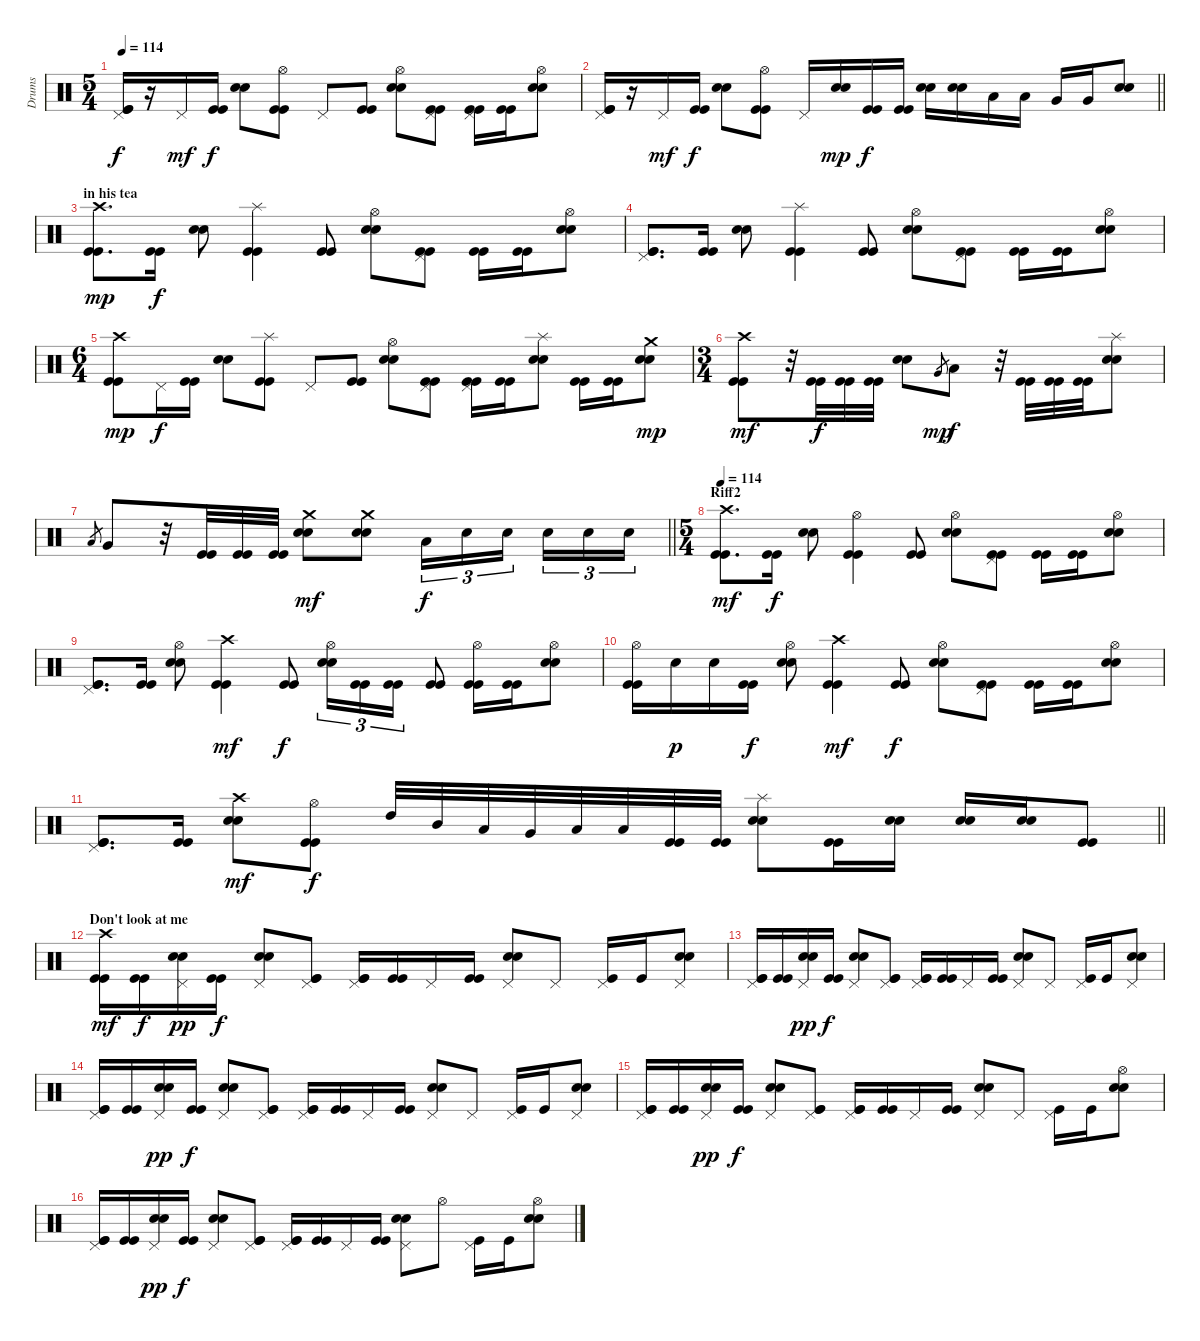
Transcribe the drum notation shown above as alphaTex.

\track ("Drums" "Drums") {instrument percussion}
\staff {score}
\articulation defaults
\ts (5 4)
\tempo 114
\clef neutral
\ks c
("Kick (hit)" "Kick (hit)" "Pedal Hi-Hat (hit)").16{dy f} r.16 "Pedal Hi-Hat (hit)".16{dy mf} ("Kick (hit)" "Kick (hit)").16{dy f} ("Snare (hit) 2" "Electric Snare (hit)").8 ("Kick (hit)" "Kick (hit)" "Hi-Hat (open)").8 "Pedal Hi-Hat (hit)".8 ("Kick (hit)" "Kick (hit)").8 ("Snare (hit) 2" "Electric Snare (hit)" "Hi-Hat (open)").8 ("Kick (hit)" "Kick (hit)" "Pedal Hi-Hat (hit)").8 ("Kick (hit)" "Kick (hit)" "Pedal Hi-Hat (hit)").16 ("Kick (hit)" "Kick (hit)").16 ("Snare (hit) 2" "Electric Snare (hit)" "Hi-Hat (open)").8 |
\barLineRight lightlight
("Kick (hit)" "Kick (hit)" "Pedal Hi-Hat (hit)").16 r.16 "Pedal Hi-Hat (hit)".16{dy mf} ("Kick (hit)" "Kick (hit)").16{dy f} ("Snare (hit) 2" "Electric Snare (hit)").8 ("Kick (hit)" "Kick (hit)" "Hi-Hat (open)").8 "Pedal Hi-Hat (hit)".16 ("Snare (hit) 2" "Electric Snare (hit)").16{dy mp} ("Kick (hit)" "Kick (hit)").16{dy f} ("Kick (hit)" "Kick (hit)").16 ("Snare (hit) 2" "Electric Snare (hit)").16 ("Snare (hit) 2" "Electric Snare (hit)").16 "Low Tom (hit)".16 "Low Tom (hit)".16 "Very Low Tom (hit)".16 "Very Low Tom (hit)".16 ("Snare (hit) 2" "Electric Snare (hit)").8 |
\section ("" "in his tea")
("Kick (hit)" "Kick (hit)" "Crash high (hit)").8{d dy mp volume 16} ("Kick (hit)" "Kick (hit)").16{dy f} ("Snare (hit) 2" "Electric Snare (hit)").8 ("Kick (hit)" "Kick (hit)" "Splash (hit)").4 ("Kick (hit)" "Kick (hit)").8 ("Snare (hit) 2" "Electric Snare (hit)" "Hi-Hat (open)").8 ("Kick (hit)" "Kick (hit)" "Pedal Hi-Hat (hit)").8 ("Kick (hit)" "Kick (hit)").16 ("Kick (hit)" "Kick (hit)").16 ("Snare (hit) 2" "Electric Snare (hit)" "Hi-Hat (open)").8 |
("Kick (hit)" "Kick (hit)" "Pedal Hi-Hat (hit)").8{d volume 16} ("Kick (hit)" "Kick (hit)").16 ("Snare (hit) 2" "Electric Snare (hit)").8 ("Kick (hit)" "Kick (hit)" "Splash (hit)").4 ("Kick (hit)" "Kick (hit)").8 ("Snare (hit) 2" "Electric Snare (hit)" "Hi-Hat (open)").8 ("Kick (hit)" "Kick (hit)" "Pedal Hi-Hat (hit)").8 ("Kick (hit)" "Kick (hit)").16 ("Kick (hit)" "Kick (hit)").16 ("Snare (hit) 2" "Electric Snare (hit)" "Hi-Hat (open)").8 |
\ts (6 4)
("Kick (hit)" "Kick (hit)" "Crash high (hit)").8{dy mp} "Pedal Hi-Hat (hit)".16{dy f} ("Kick (hit)" "Kick (hit)").16 ("Snare (hit) 2" "Electric Snare (hit)").8 ("Kick (hit)" "Kick (hit)" "Splash (hit)").8 "Pedal Hi-Hat (hit)".8 ("Kick (hit)" "Kick (hit)").8 ("Snare (hit) 2" "Electric Snare (hit)" "Hi-Hat (open)").8 ("Kick (hit)" "Kick (hit)" "Pedal Hi-Hat (hit)").8 ("Kick (hit)" "Kick (hit)" "Pedal Hi-Hat (hit)").16 ("Kick (hit)" "Kick (hit)").16 ("Snare (hit) 2" "Electric Snare (hit)" "Splash (hit)").8 ("Kick (hit)" "Kick (hit)").16 ("Kick (hit)" "Kick (hit)").16 ("Snare (hit) 2" "Electric Snare (hit)" "Crash medium (hit)").8{dy mp} |
\ts (3 4)
("Kick (hit)" "Kick (hit)" "Crash high (hit)").8{dy mf} r.32 ("Kick (hit)" "Kick (hit)").32{dy f} ("Kick (hit)" "Kick (hit)").32 ("Kick (hit)" "Kick (hit)").32 ("Snare (hit) 2" "Electric Snare (hit)").8 "Very Low Tom (hit)".8{gr dy mp} "Low Tom (hit)".8{dy f} r.32 ("Kick (hit)" "Kick (hit)").32 ("Kick (hit)" "Kick (hit)").32 ("Kick (hit)" "Kick (hit)").32 ("Snare (hit) 2" "Electric Snare (hit)" "Splash (hit)").8 |
\barLineRight lightlight "Low Floor Tom (hit)".8{gr} "Very Low Tom (hit)".8
r.32 ("Kick (hit)" "Kick (hit)").32 ("Kick (hit)" "Kick (hit)").32 ("Kick (hit)" "Kick (hit)").32 ("Snare (hit) 2" "Electric Snare (hit)" "Crash medium (hit)").8{dy mf} ("Snare (hit) 2" "Electric Snare (hit)" "Crash medium (hit)").8 "Low Tom (hit)".16{tu (3 2) dy f} "Snare (hit) 2".16{tu (3 2)} "Snare (hit) 2".16{tu (3 2)} "Snare (hit) 2".16{tu (3 2)} "Snare (hit) 2".16{tu (3 2)} "Snare (hit) 2".16{tu (3 2)} |
\ts (5 4)
\section ("" "Riff2")
\tempo 114
("Kick (hit)" "Kick (hit)" "Crash high (hit)").8{d dy mf volume 16} ("Kick (hit)" "Kick (hit)").16{dy f} ("Snare (hit) 2" "Electric Snare (hit)").8 ("Kick (hit)" "Kick (hit)" "Hi-Hat (open)").4 ("Kick (hit)" "Kick (hit)").8 ("Snare (hit) 2" "Electric Snare (hit)" "Hi-Hat (open)").8 ("Kick (hit)" "Kick (hit)" "Pedal Hi-Hat (hit)").8 ("Kick (hit)" "Kick (hit)").16 ("Kick (hit)" "Kick (hit)").16 ("Snare (hit) 2" "Electric Snare (hit)" "Hi-Hat (open)").8 |
("Kick (hit)" "Kick (hit)" "Pedal Hi-Hat (hit)").8{d volume 16} ("Kick (hit)" "Kick (hit)").16 ("Snare (hit) 2" "Electric Snare (hit)" "Hi-Hat (open)").8 ("Kick (hit)" "Kick (hit)" "Crash high (hit)").4{dy mf} ("Kick (hit)" "Kick (hit)").8{dy f} ("Snare (hit) 2" "Electric Snare (hit)" "Hi-Hat (open)").16{tu (3 2)} ("Kick (hit)" "Kick (hit)").16{tu (3 2)} ("Kick (hit)" "Kick (hit)").16{tu (3 2)} ("Kick (hit)" "Kick (hit)").8 ("Kick (hit)" "Kick (hit)" "Hi-Hat (open)").16 ("Kick (hit)" "Kick (hit)").16 ("Snare (hit) 2" "Electric Snare (hit)" "Hi-Hat (open)").8 |
("Kick (hit)" "Kick (hit)" "Hi-Hat (open)").16{volume 16} "Snare (hit) 2".16{dy p} "Snare (hit) 2".16 ("Kick (hit)" "Kick (hit)").16{dy f} ("Snare (hit) 2" "Electric Snare (hit)" "Hi-Hat (open)").8 ("Kick (hit)" "Kick (hit)" "Crash high (hit)").4{dy mf} ("Kick (hit)" "Kick (hit)").8{dy f} ("Snare (hit) 2" "Electric Snare (hit)" "Hi-Hat (open)").8 ("Kick (hit)" "Kick (hit)" "Pedal Hi-Hat (hit)").8 ("Kick (hit)" "Kick (hit)").16 ("Kick (hit)" "Kick (hit)").16 ("Snare (hit) 2" "Electric Snare (hit)" "Hi-Hat (open)").8 |
\barLineRight lightlight
("Kick (hit)" "Kick (hit)" "Pedal Hi-Hat (hit)").8{d volume 16} ("Kick (hit)" "Kick (hit)").16 ("Snare (hit) 2" "Electric Snare (hit)" "Crash high (hit)").8{dy mf} ("Kick (hit)" "Kick (hit)" "Hi-Hat (open)").8{dy f} "High Tom (hit)".32 "Mid Tom (hit)".32 "Low Tom (hit)".32 "Very Low Tom (hit)".32 "Low Floor Tom (hit)".32 "Low Floor Tom (hit)".32 ("Kick (hit)" "Kick (hit)").32 ("Kick (hit)" "Kick (hit)").32 ("Snare (hit) 2" "Electric Snare (hit)" "Splash (hit)").8 ("Kick (hit)" "Kick (hit)").16 ("Snare (hit) 2" "Electric Snare (hit)").16 ("Snare (hit) 2" "Electric Snare (hit)").16 ("Snare (hit) 2" "Electric Snare (hit)").16 ("Kick (hit)" "Kick (hit)").8 |
\section ("" "Don't look at me")
("Kick (hit)" "Kick (hit)" "Crash high (hit)").16{dy mf} ("Kick (hit)" "Kick (hit)").16{dy f} ("Snare (hit) 2" "Electric Snare (hit)" "Pedal Hi-Hat (hit)").16{dy pp} ("Kick (hit)" "Kick (hit)").16{dy f} ("Snare (hit) 2" "Electric Snare (hit)" "Pedal Hi-Hat (hit)").8 ("Kick (hit)" "Kick (hit)" "Pedal Hi-Hat (hit)").8 ("Kick (hit)" "Kick (hit)" "Pedal Hi-Hat (hit)").16 ("Kick (hit)" "Kick (hit)").16 "Pedal Hi-Hat (hit)".16 ("Kick (hit)" "Kick (hit)").16 ("Snare (hit) 2" "Electric Snare (hit)" "Pedal Hi-Hat (hit)").8 "Pedal Hi-Hat (hit)".8 ("Kick (hit)" "Pedal Hi-Hat (hit)").16 "Kick (hit)".16 ("Snare (hit) 2" "Electric Snare (hit)" "Pedal Hi-Hat (hit)").8 |
("Kick (hit)" "Kick (hit)" "Pedal Hi-Hat (hit)").16 ("Kick (hit)" "Kick (hit)").16 ("Snare (hit) 2" "Electric Snare (hit)" "Pedal Hi-Hat (hit)").16{dy pp} ("Kick (hit)" "Kick (hit)").16{dy f} ("Snare (hit) 2" "Electric Snare (hit)" "Pedal Hi-Hat (hit)").8 ("Kick (hit)" "Kick (hit)" "Pedal Hi-Hat (hit)").8 ("Kick (hit)" "Kick (hit)" "Pedal Hi-Hat (hit)").16 ("Kick (hit)" "Kick (hit)").16 "Pedal Hi-Hat (hit)".16 ("Kick (hit)" "Kick (hit)").16 ("Snare (hit) 2" "Electric Snare (hit)" "Pedal Hi-Hat (hit)").8 "Pedal Hi-Hat (hit)".8 ("Kick (hit)" "Pedal Hi-Hat (hit)").16 "Kick (hit)".16 ("Snare (hit) 2" "Electric Snare (hit)" "Pedal Hi-Hat (hit)").8 |
("Kick (hit)" "Kick (hit)" "Pedal Hi-Hat (hit)").16 ("Kick (hit)" "Kick (hit)").16 ("Snare (hit) 2" "Electric Snare (hit)" "Pedal Hi-Hat (hit)").16{dy pp} ("Kick (hit)" "Kick (hit)").16{dy f} ("Snare (hit) 2" "Electric Snare (hit)" "Pedal Hi-Hat (hit)").8 ("Kick (hit)" "Kick (hit)" "Pedal Hi-Hat (hit)").8 ("Kick (hit)" "Kick (hit)" "Pedal Hi-Hat (hit)").16 ("Kick (hit)" "Kick (hit)").16 "Pedal Hi-Hat (hit)".16 ("Kick (hit)" "Kick (hit)").16 ("Snare (hit) 2" "Electric Snare (hit)" "Pedal Hi-Hat (hit)").8 "Pedal Hi-Hat (hit)".8 ("Kick (hit)" "Pedal Hi-Hat (hit)").16 "Kick (hit)".16 ("Snare (hit) 2" "Electric Snare (hit)" "Pedal Hi-Hat (hit)").8 |
("Kick (hit)" "Kick (hit)" "Pedal Hi-Hat (hit)").16 ("Kick (hit)" "Kick (hit)").16 ("Snare (hit) 2" "Electric Snare (hit)" "Pedal Hi-Hat (hit)").16{dy pp} ("Kick (hit)" "Kick (hit)").16{dy f} ("Snare (hit) 2" "Electric Snare (hit)" "Pedal Hi-Hat (hit)").8 ("Kick (hit)" "Kick (hit)" "Pedal Hi-Hat (hit)").8 ("Kick (hit)" "Kick (hit)" "Pedal Hi-Hat (hit)").16 ("Kick (hit)" "Kick (hit)").16 "Pedal Hi-Hat (hit)".16 ("Kick (hit)" "Kick (hit)").16 ("Snare (hit) 2" "Electric Snare (hit)" "Pedal Hi-Hat (hit)").8 "Pedal Hi-Hat (hit)".8 ("Kick (hit)" "Pedal Hi-Hat (hit)").16 "Kick (hit)".16 ("Snare (hit) 2" "Electric Snare (hit)" "Hi-Hat (open)").8 |
("Kick (hit)" "Kick (hit)" "Pedal Hi-Hat (hit)").16 ("Kick (hit)" "Kick (hit)").16 ("Snare (hit) 2" "Electric Snare (hit)" "Pedal Hi-Hat (hit)").16{dy pp} ("Kick (hit)" "Kick (hit)").16{dy f} ("Snare (hit) 2" "Electric Snare (hit)" "Pedal Hi-Hat (hit)").8 ("Kick (hit)" "Kick (hit)" "Pedal Hi-Hat (hit)").8 ("Kick (hit)" "Kick (hit)" "Pedal Hi-Hat (hit)").16 ("Kick (hit)" "Kick (hit)").16 "Pedal Hi-Hat (hit)".16 ("Kick (hit)" "Kick (hit)").16 ("Snare (hit) 2" "Electric Snare (hit)" "Pedal Hi-Hat (hit)").8 "Hi-Hat (open)".8 ("Kick (hit)" "Pedal Hi-Hat (hit)").16 "Kick (hit)".16 ("Snare (hit) 2" "Electric Snare (hit)" "Hi-Hat (open)").8
